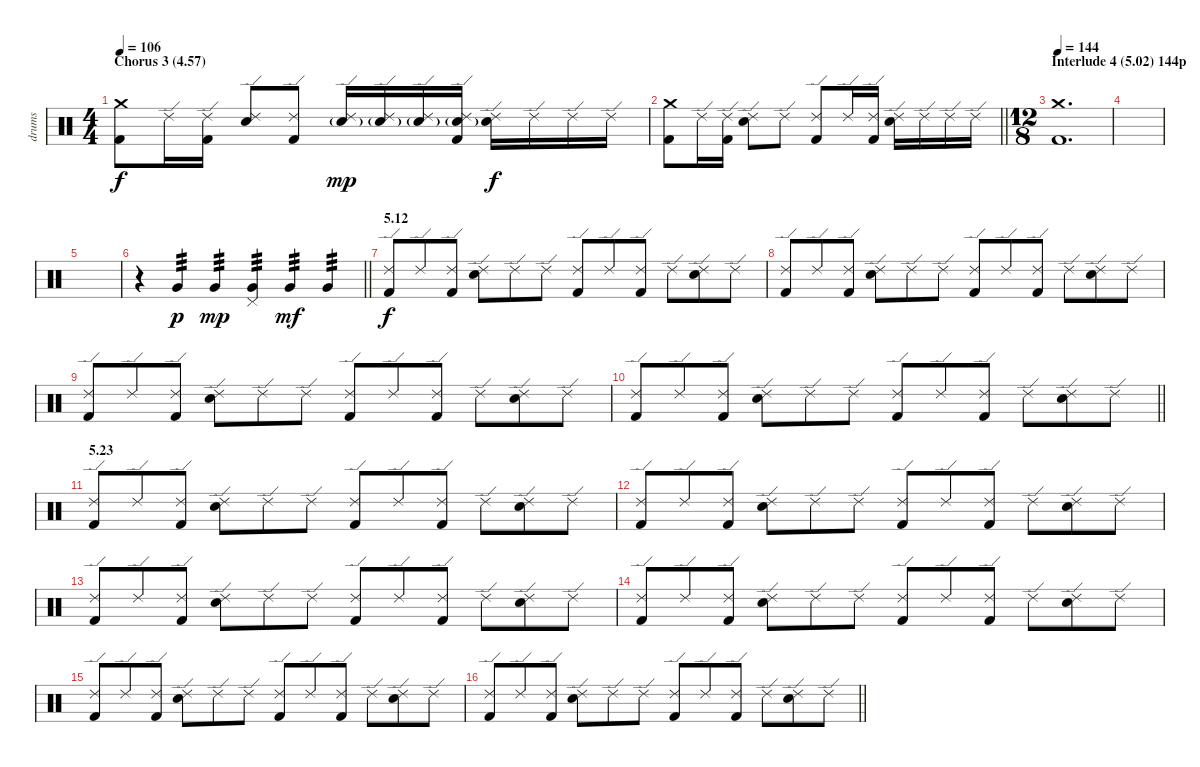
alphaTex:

\track ("drums" "drums") {instrument percussion}
\staff {score}
\articulation defaults
\ts (4 4)
\section ("" "Chorus 3 (4.57)")
\tempo 106
\clef neutral
\ks c
("Crash medium (hit)" "Kick (hit) 2").8{dy f} "Ride (edge) 2".16 ("Ride (edge) 2" "Kick (hit) 2").16 ("Ride (edge) 2" "Electric Snare (hit)").8 ("Ride (edge) 2" "Kick (hit) 2").8 ("Ride (edge) 2" "Electric Snare (hit)"{g}).16{dy mp} ("Ride (edge) 2" "Electric Snare (hit)"{g}).16 ("Ride (edge) 2" "Electric Snare (hit)"{g}).16 ("Ride (edge) 2" "Electric Snare (hit)"{g} "Kick (hit) 2").16 ("Ride (edge) 2" "Electric Snare (hit)").16{dy f} "Ride (edge) 2".16 "Ride (edge) 2".16 "Ride (edge) 2".16 |
\barLineRight lightlight
("Crash medium (hit)" "Kick (hit) 2").8 "Ride (edge) 2".16 ("Ride (edge) 2" "Kick (hit) 2").16 ("Ride (edge) 2" "Electric Snare (hit)").8 "Ride (edge) 2".8 ("Ride (edge) 2" "Kick (hit) 2").8 "Ride (edge) 2".16 ("Ride (edge) 2" "Kick (hit) 2").16 ("Ride (edge) 2" "Electric Snare (hit)").16 "Ride (edge) 2".16 "Ride (edge) 2".16 "Ride (edge) 2".16 |
\ts (12 8)
\section ("" "Interlude 4 (5.02) 144p")
\tempo 144
("Crash medium (hit)" "Kick (hit) 2").1{d} |
|
|
\barLineRight lightlight
r.4 "Very Low Tom (hit)".4{tp 3 dy p} "Very Low Tom (hit)".4{tp 3 dy mp} ("Pedal Hi-Hat (hit)" "Very Low Tom (hit)").4{tp 3} "Very Low Tom (hit)".4{tp 3 dy mf} "Very Low Tom (hit)".4{tp 3} |
\section ("" "5.12")
("Ride (edge) 2" "Kick (hit) 2").8{dy f} "Ride (edge) 2".8 ("Ride (edge) 2" "Kick (hit) 2").8 ("Ride (edge) 2" "Electric Snare (hit)").8 "Ride (edge) 2".8 "Ride (edge) 2".8 ("Ride (edge) 2" "Kick (hit) 2").8 "Ride (edge) 2".8 ("Ride (edge) 2" "Kick (hit) 2").8 "Ride (edge) 2".8 ("Ride (edge) 2" "Electric Snare (hit)").8 "Ride (edge) 2".8 |
("Ride (edge) 2" "Kick (hit) 2").8 "Ride (edge) 2".8 ("Ride (edge) 2" "Kick (hit) 2").8 ("Ride (edge) 2" "Electric Snare (hit)").8 "Ride (edge) 2".8 "Ride (edge) 2".8 ("Ride (edge) 2" "Kick (hit) 2").8 "Ride (edge) 2".8 ("Ride (edge) 2" "Kick (hit) 2").8 "Ride (edge) 2".8 ("Ride (edge) 2" "Electric Snare (hit)").8 "Ride (edge) 2".8 |
("Ride (edge) 2" "Kick (hit) 2").8 "Ride (edge) 2".8 ("Ride (edge) 2" "Kick (hit) 2").8 ("Ride (edge) 2" "Electric Snare (hit)").8 "Ride (edge) 2".8 "Ride (edge) 2".8 ("Ride (edge) 2" "Kick (hit) 2").8 "Ride (edge) 2".8 ("Ride (edge) 2" "Kick (hit) 2").8 "Ride (edge) 2".8 ("Ride (edge) 2" "Electric Snare (hit)").8 "Ride (edge) 2".8 |
\barLineRight lightlight
("Ride (edge) 2" "Kick (hit) 2").8 "Ride (edge) 2".8 ("Ride (edge) 2" "Kick (hit) 2").8 ("Ride (edge) 2" "Electric Snare (hit)").8 "Ride (edge) 2".8 "Ride (edge) 2".8 ("Ride (edge) 2" "Kick (hit) 2").8 "Ride (edge) 2".8 ("Ride (edge) 2" "Kick (hit) 2").8 "Ride (edge) 2".8 ("Ride (edge) 2" "Electric Snare (hit)").8 "Ride (edge) 2".8 |
\section ("" "5.23")
("Ride (edge) 2" "Kick (hit) 2").8 "Ride (edge) 2".8 ("Ride (edge) 2" "Kick (hit) 2").8 ("Ride (edge) 2" "Electric Snare (hit)").8 "Ride (edge) 2".8 "Ride (edge) 2".8 ("Ride (edge) 2" "Kick (hit) 2").8 "Ride (edge) 2".8 ("Ride (edge) 2" "Kick (hit) 2").8 "Ride (edge) 2".8 ("Ride (edge) 2" "Electric Snare (hit)").8 "Ride (edge) 2".8 |
("Ride (edge) 2" "Kick (hit) 2").8 "Ride (edge) 2".8 ("Ride (edge) 2" "Kick (hit) 2").8 ("Ride (edge) 2" "Electric Snare (hit)").8 "Ride (edge) 2".8 "Ride (edge) 2".8 ("Ride (edge) 2" "Kick (hit) 2").8 "Ride (edge) 2".8 ("Ride (edge) 2" "Kick (hit) 2").8 "Ride (edge) 2".8 ("Ride (edge) 2" "Electric Snare (hit)").8 "Ride (edge) 2".8 |
("Ride (edge) 2" "Kick (hit) 2").8 "Ride (edge) 2".8 ("Ride (edge) 2" "Kick (hit) 2").8 ("Ride (edge) 2" "Electric Snare (hit)").8 "Ride (edge) 2".8 "Ride (edge) 2".8 ("Ride (edge) 2" "Kick (hit) 2").8 "Ride (edge) 2".8 ("Ride (edge) 2" "Kick (hit) 2").8 "Ride (edge) 2".8 ("Ride (edge) 2" "Electric Snare (hit)").8 "Ride (edge) 2".8 |
("Ride (edge) 2" "Kick (hit) 2").8 "Ride (edge) 2".8 ("Ride (edge) 2" "Kick (hit) 2").8 ("Ride (edge) 2" "Electric Snare (hit)").8 "Ride (edge) 2".8 "Ride (edge) 2".8 ("Ride (edge) 2" "Kick (hit) 2").8 "Ride (edge) 2".8 ("Ride (edge) 2" "Kick (hit) 2").8 "Ride (edge) 2".8 ("Ride (edge) 2" "Electric Snare (hit)").8 "Ride (edge) 2".8 |
("Ride (edge) 2" "Kick (hit) 2").8 "Ride (edge) 2".8 ("Ride (edge) 2" "Kick (hit) 2").8 ("Ride (edge) 2" "Electric Snare (hit)").8 "Ride (edge) 2".8 "Ride (edge) 2".8 ("Ride (edge) 2" "Kick (hit) 2").8 "Ride (edge) 2".8 ("Ride (edge) 2" "Kick (hit) 2").8 "Ride (edge) 2".8 ("Ride (edge) 2" "Electric Snare (hit)").8 "Ride (edge) 2".8 |
\barLineRight lightlight
("Ride (edge) 2" "Kick (hit) 2").8 "Ride (edge) 2".8 ("Ride (edge) 2" "Kick (hit) 2").8 ("Ride (edge) 2" "Electric Snare (hit)").8 "Ride (edge) 2".8 "Ride (edge) 2".8 ("Ride (edge) 2" "Kick (hit) 2").8 "Ride (edge) 2".8 ("Ride (edge) 2" "Kick (hit) 2").8 "Ride (edge) 2".8 ("Ride (edge) 2" "Electric Snare (hit)").8 "Ride (edge) 2".8
